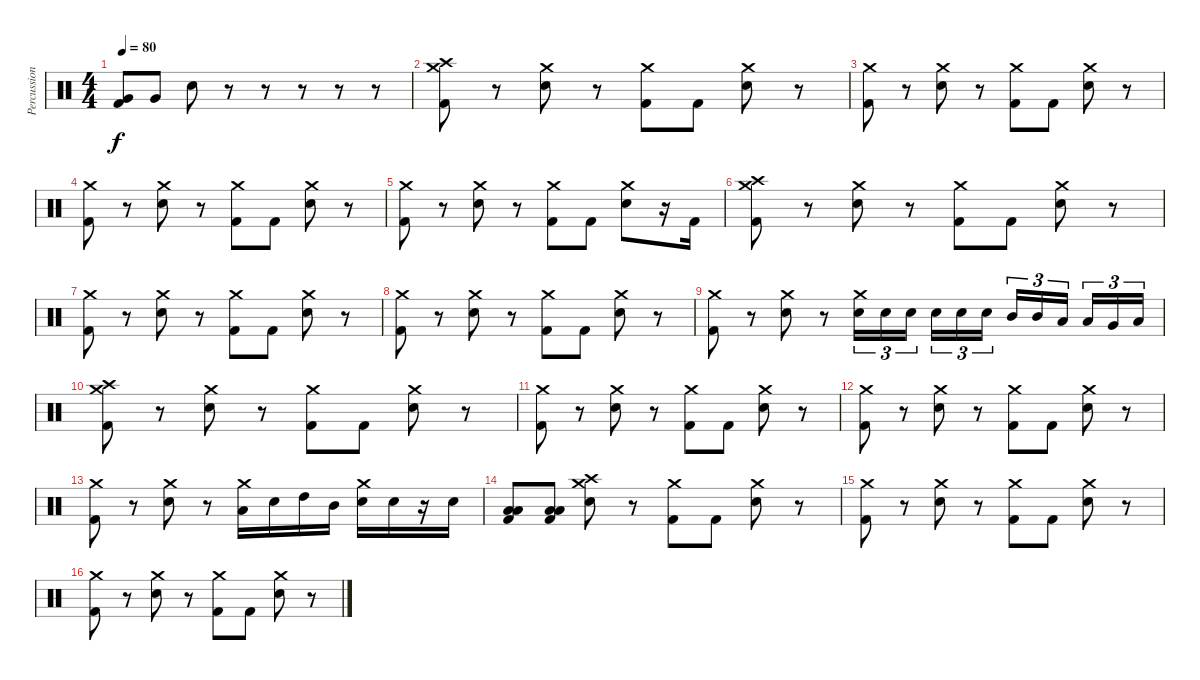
\track ("Percussion" "Percussion") {instrument percussion}
\staff {score}
\articulation defaults
\ts (4 4)
\tempo 80
\clef neutral
\ks c
("Kick (hit) 2" "Very Low Tom (hit)").8{dy f} "Very Low Tom (hit)".8 "Electric Snare (hit)".8 r.8 r.8 r.8 r.8 r.8 |
("Kick (hit) 2" "Crash medium (hit)" "Crash high (hit)").8 r.8 ("Electric Snare (hit)" "Crash medium (hit)").8 r.8 ("Kick (hit) 2" "Crash medium (hit)").8 "Kick (hit) 2".8 ("Electric Snare (hit)" "Crash medium (hit)").8 r.8 |
("Kick (hit) 2" "Crash medium (hit)").8 r.8 ("Electric Snare (hit)" "Crash medium (hit)").8 r.8 ("Kick (hit) 2" "Crash medium (hit)").8 "Kick (hit) 2".8 ("Electric Snare (hit)" "Crash medium (hit)").8 r.8 |
("Kick (hit) 2" "Crash medium (hit)").8 r.8 ("Electric Snare (hit)" "Crash medium (hit)").8 r.8 ("Kick (hit) 2" "Crash medium (hit)").8 "Kick (hit) 2".8 ("Electric Snare (hit)" "Crash medium (hit)").8 r.8 |
("Kick (hit) 2" "Crash medium (hit)").8 r.8 ("Electric Snare (hit)" "Crash medium (hit)").8 r.8 ("Kick (hit) 2" "Crash medium (hit)").8 "Kick (hit) 2".8 ("Electric Snare (hit)" "Crash medium (hit)").8 r.16 "Kick (hit) 2".16 |
("Kick (hit) 2" "Crash medium (hit)" "Crash high (hit)").8 r.8 ("Electric Snare (hit)" "Crash medium (hit)").8 r.8 ("Kick (hit) 2" "Crash medium (hit)").8 "Kick (hit) 2".8 ("Electric Snare (hit)" "Crash medium (hit)").8 r.8 |
("Kick (hit) 2" "Crash medium (hit)").8 r.8 ("Electric Snare (hit)" "Crash medium (hit)").8 r.8 ("Kick (hit) 2" "Crash medium (hit)").8 "Kick (hit) 2".8 ("Electric Snare (hit)" "Crash medium (hit)").8 r.8 |
("Kick (hit) 2" "Crash medium (hit)").8 r.8 ("Electric Snare (hit)" "Crash medium (hit)").8 r.8 ("Kick (hit) 2" "Crash medium (hit)").8 "Kick (hit) 2".8 ("Electric Snare (hit)" "Crash medium (hit)").8 r.8 |
("Kick (hit) 2" "Crash medium (hit)").8 r.8 ("Electric Snare (hit)" "Crash medium (hit)").8 r.8 ("Electric Snare (hit)" "Crash medium (hit)").16{tu (3 2)} "Electric Snare (hit)".16{tu (3 2)} "Electric Snare (hit)".16{tu (3 2) beam splitsecondary} "Electric Snare (hit)".16{tu (3 2)} "Electric Snare (hit)".16{tu (3 2)} "Electric Snare (hit)".16{tu (3 2)} "Mid Tom (hit)".16{tu (3 2)} "Mid Tom (hit)".16{tu (3 2)} "Low Tom (hit)".16{tu (3 2) beam splitsecondary} "Low Tom (hit)".16{tu (3 2)} "Very Low Tom (hit)".16{tu (3 2)} "Low Floor Tom (hit)".16{tu (3 2)} |
("Kick (hit) 2" "Crash medium (hit)" "Crash high (hit)").8 r.8 ("Electric Snare (hit)" "Crash medium (hit)").8 r.8 ("Kick (hit) 2" "Crash medium (hit)").8 "Kick (hit) 2".8 ("Electric Snare (hit)" "Crash medium (hit)").8 r.8 |
("Kick (hit) 2" "Crash medium (hit)").8 r.8 ("Electric Snare (hit)" "Crash medium (hit)").8 r.8 ("Kick (hit) 2" "Crash medium (hit)").8 "Kick (hit) 2".8 ("Electric Snare (hit)" "Crash medium (hit)").8 r.8 |
("Kick (hit) 2" "Crash medium (hit)").8 r.8 ("Electric Snare (hit)" "Crash medium (hit)").8 r.8 ("Kick (hit) 2" "Crash medium (hit)").8 "Kick (hit) 2".8 ("Electric Snare (hit)" "Crash medium (hit)").8 r.8 |
("Kick (hit) 2" "Crash medium (hit)").8 r.8 ("Electric Snare (hit)" "Crash medium (hit)").8 r.8 ("Low Tom (hit)" "Crash medium (hit)").16 "Electric Snare (hit)".16 "High Tom (hit)".16 "Mid Tom (hit)".16 ("Electric Snare (hit)" "Crash medium (hit)").16 "Electric Snare (hit)".16 r.16 "Electric Snare (hit)".16 |
("Kick (hit) 2" "Low Tom (hit)" "Low Floor Tom (hit)").8 ("Kick (hit) 2" "Low Tom (hit)" "Low Floor Tom (hit)").8 ("Electric Snare (hit)" "Crash high (hit)" "Crash medium (hit)").8 r.8 ("Kick (hit) 2" "Crash medium (hit)").8 "Kick (hit) 2".8 ("Electric Snare (hit)" "Crash medium (hit)").8 r.8 |
("Kick (hit) 2" "Crash medium (hit)").8 r.8 ("Electric Snare (hit)" "Crash medium (hit)").8 r.8 ("Kick (hit) 2" "Crash medium (hit)").8 "Kick (hit) 2".8 ("Electric Snare (hit)" "Crash medium (hit)").8 r.8 |
("Kick (hit) 2" "Crash medium (hit)").8 r.8 ("Electric Snare (hit)" "Crash medium (hit)").8 r.8 ("Kick (hit) 2" "Crash medium (hit)").8 "Kick (hit) 2".8 ("Electric Snare (hit)" "Crash medium (hit)").8 r.8
